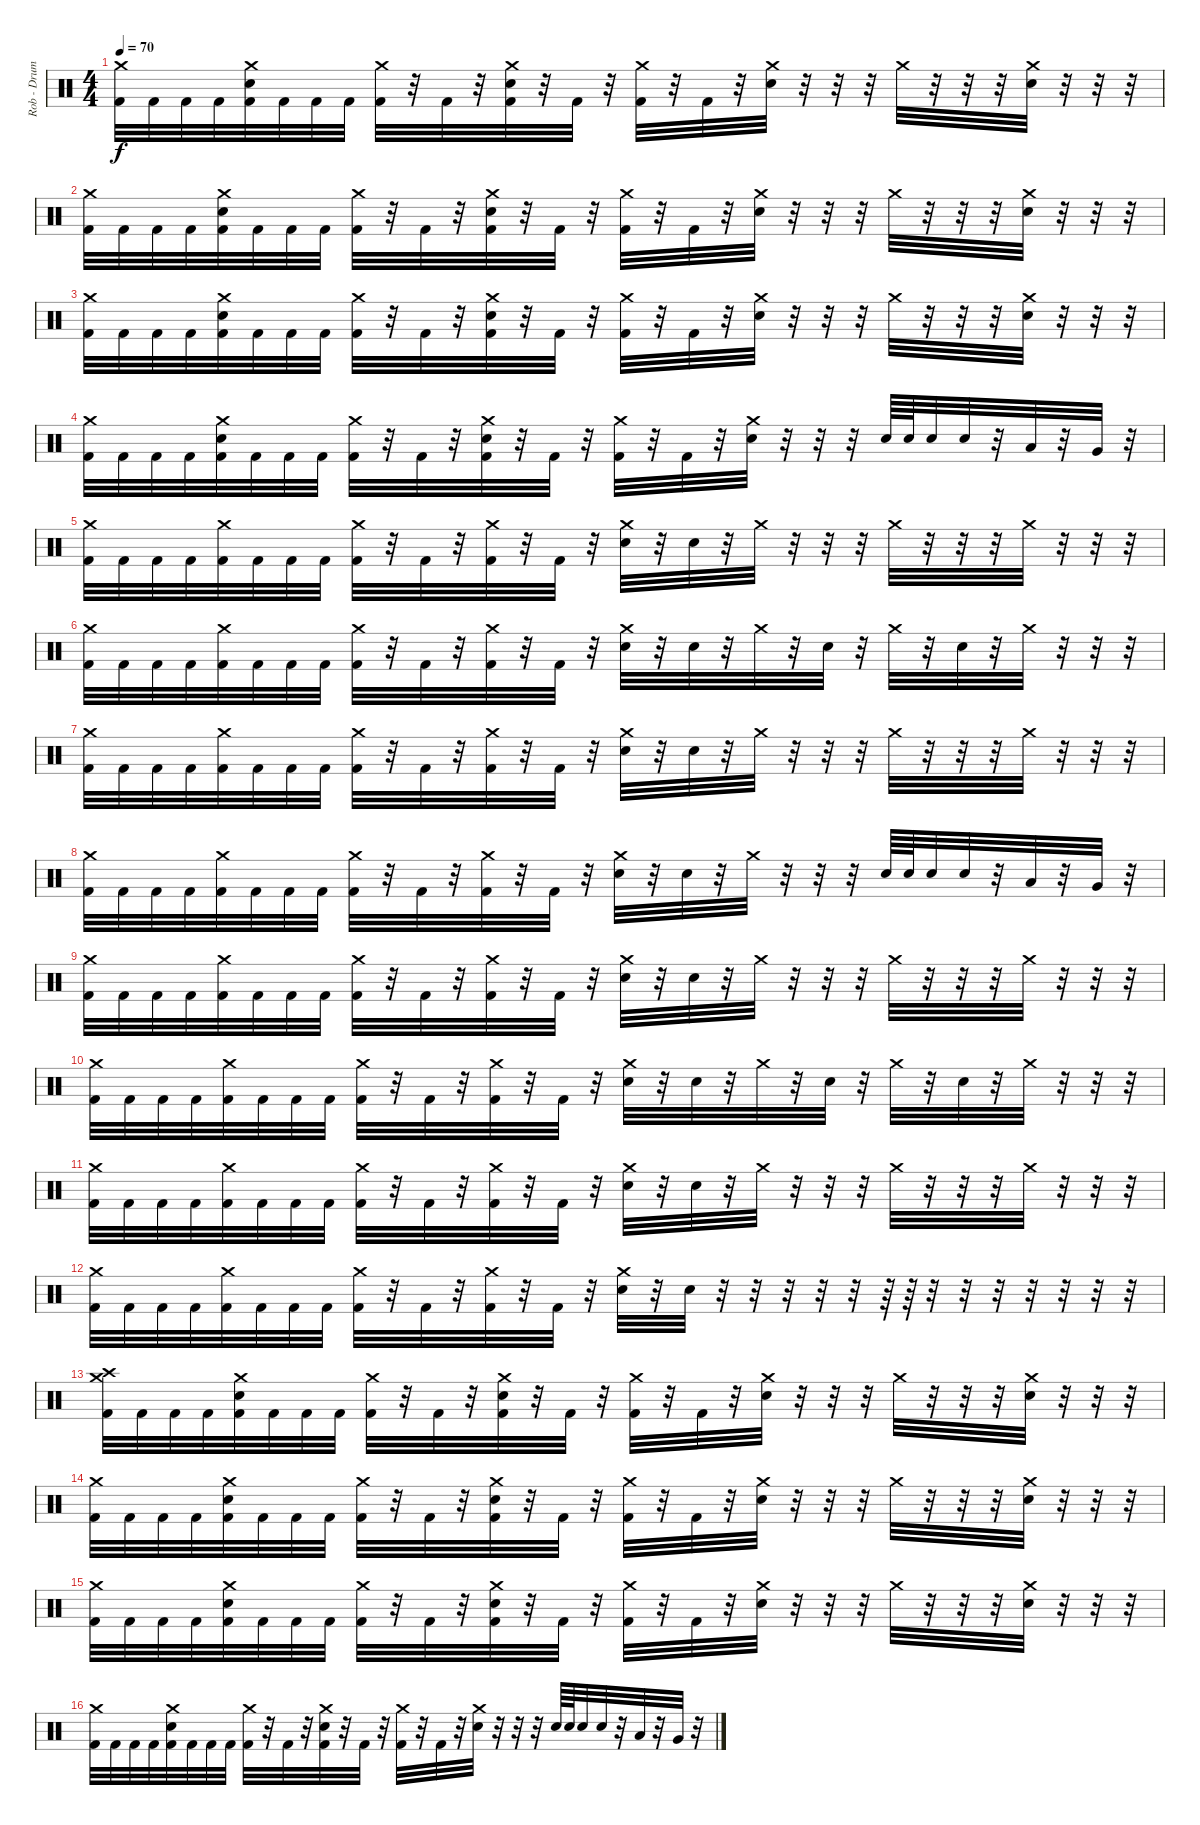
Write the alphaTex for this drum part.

\track ("Rob - Drums" "Rob - Drum") {instrument percussion}
\staff {score}
\articulation defaults
\ts (4 4)
\tempo 70
\clef neutral
\ks c
("Crash medium (hit)" "Kick (hit) 2").32{dy f volume 16} "Kick (hit) 2".32 "Kick (hit) 2".32 "Kick (hit) 2".32 ("Crash medium (hit)" "Electric Snare (hit)" "Kick (hit) 2").32 "Kick (hit) 2".32 "Kick (hit) 2".32 "Kick (hit) 2".32 ("Crash medium (hit)" "Kick (hit) 2").32 r.32 "Kick (hit) 2".32 r.32 ("Crash medium (hit)" "Electric Snare (hit)" "Kick (hit) 2").32 r.32 "Kick (hit) 2".32 r.32 ("Crash medium (hit)" "Kick (hit) 2").32 r.32 "Kick (hit) 2".32 r.32 ("Crash medium (hit)" "Electric Snare (hit)").32 r.32 r.32 r.32 "Crash medium (hit)".32 r.32 r.32 r.32 ("Crash medium (hit)" "Electric Snare (hit)").32 r.32 r.32 r.32 |
("Crash medium (hit)" "Kick (hit) 2").32 "Kick (hit) 2".32 "Kick (hit) 2".32 "Kick (hit) 2".32 ("Crash medium (hit)" "Electric Snare (hit)" "Kick (hit) 2").32 "Kick (hit) 2".32 "Kick (hit) 2".32 "Kick (hit) 2".32 ("Crash medium (hit)" "Kick (hit) 2").32 r.32 "Kick (hit) 2".32 r.32 ("Crash medium (hit)" "Electric Snare (hit)" "Kick (hit) 2").32 r.32 "Kick (hit) 2".32 r.32 ("Crash medium (hit)" "Kick (hit) 2").32 r.32 "Kick (hit) 2".32 r.32 ("Crash medium (hit)" "Electric Snare (hit)").32 r.32 r.32 r.32 "Crash medium (hit)".32 r.32 r.32 r.32 ("Crash medium (hit)" "Electric Snare (hit)").32 r.32 r.32 r.32 |
("Crash medium (hit)" "Kick (hit) 2").32{volume 16} "Kick (hit) 2".32 "Kick (hit) 2".32 "Kick (hit) 2".32 ("Crash medium (hit)" "Electric Snare (hit)" "Kick (hit) 2").32 "Kick (hit) 2".32 "Kick (hit) 2".32 "Kick (hit) 2".32 ("Crash medium (hit)" "Kick (hit) 2").32 r.32 "Kick (hit) 2".32 r.32 ("Crash medium (hit)" "Electric Snare (hit)" "Kick (hit) 2").32 r.32 "Kick (hit) 2".32 r.32 ("Crash medium (hit)" "Kick (hit) 2").32 r.32 "Kick (hit) 2".32 r.32 ("Crash medium (hit)" "Electric Snare (hit)").32 r.32 r.32 r.32 "Crash medium (hit)".32 r.32 r.32 r.32 ("Crash medium (hit)" "Electric Snare (hit)").32 r.32 r.32 r.32 |
("Crash medium (hit)" "Kick (hit) 2").32 "Kick (hit) 2".32 "Kick (hit) 2".32 "Kick (hit) 2".32 ("Crash medium (hit)" "Electric Snare (hit)" "Kick (hit) 2").32 "Kick (hit) 2".32 "Kick (hit) 2".32 "Kick (hit) 2".32 ("Crash medium (hit)" "Kick (hit) 2").32 r.32 "Kick (hit) 2".32 r.32 ("Crash medium (hit)" "Electric Snare (hit)" "Kick (hit) 2").32 r.32 "Kick (hit) 2".32 r.32 ("Crash medium (hit)" "Kick (hit) 2").32 r.32 "Kick (hit) 2".32 r.32 ("Crash medium (hit)" "Electric Snare (hit)").32 r.32 r.32 r.32 "Electric Snare (hit)".64 "Electric Snare (hit)".64 "Electric Snare (hit)".32 "Electric Snare (hit)".32 r.32 "Low Tom (hit)".32 r.32 "Very Low Tom (hit)".32 r.32 |
("Crash medium (hit)" "Kick (hit) 2").32{volume 16} "Kick (hit) 2".32 "Kick (hit) 2".32 "Kick (hit) 2".32 ("Crash medium (hit)" "Kick (hit) 2").32 "Kick (hit) 2".32 "Kick (hit) 2".32 "Kick (hit) 2".32 ("Crash medium (hit)" "Kick (hit) 2").32 r.32 "Kick (hit) 2".32 r.32 ("Crash medium (hit)" "Kick (hit) 2").32 r.32 "Kick (hit) 2".32 r.32 ("Crash medium (hit)" "Electric Snare (hit)").32 r.32 "Electric Snare (hit)".32 r.32 "Crash medium (hit)".32 r.32 r.32 r.32 "Crash medium (hit)".32 r.32 r.32 r.32 "Crash medium (hit)".32 r.32 r.32 r.32 |
("Crash medium (hit)" "Kick (hit) 2").32{volume 16} "Kick (hit) 2".32 "Kick (hit) 2".32 "Kick (hit) 2".32 ("Crash medium (hit)" "Kick (hit) 2").32 "Kick (hit) 2".32 "Kick (hit) 2".32 "Kick (hit) 2".32 ("Crash medium (hit)" "Kick (hit) 2").32 r.32 "Kick (hit) 2".32 r.32 ("Crash medium (hit)" "Kick (hit) 2").32 r.32 "Kick (hit) 2".32 r.32 ("Crash medium (hit)" "Electric Snare (hit)").32 r.32 "Electric Snare (hit)".32 r.32 "Crash medium (hit)".32 r.32 "Electric Snare (hit)".32 r.32 "Crash medium (hit)".32 r.32 "Electric Snare (hit)".32 r.32 "Crash medium (hit)".32 r.32 r.32 r.32 |
("Crash medium (hit)" "Kick (hit) 2").32{volume 16} "Kick (hit) 2".32 "Kick (hit) 2".32 "Kick (hit) 2".32 ("Crash medium (hit)" "Kick (hit) 2").32 "Kick (hit) 2".32 "Kick (hit) 2".32 "Kick (hit) 2".32 ("Crash medium (hit)" "Kick (hit) 2").32 r.32 "Kick (hit) 2".32 r.32 ("Crash medium (hit)" "Kick (hit) 2").32 r.32 "Kick (hit) 2".32 r.32 ("Crash medium (hit)" "Electric Snare (hit)").32 r.32 "Electric Snare (hit)".32 r.32 "Crash medium (hit)".32 r.32 r.32 r.32 "Crash medium (hit)".32 r.32 r.32 r.32 "Crash medium (hit)".32 r.32 r.32 r.32 |
("Crash medium (hit)" "Kick (hit) 2").32 "Kick (hit) 2".32 "Kick (hit) 2".32 "Kick (hit) 2".32 ("Crash medium (hit)" "Kick (hit) 2").32 "Kick (hit) 2".32 "Kick (hit) 2".32 "Kick (hit) 2".32 ("Crash medium (hit)" "Kick (hit) 2").32 r.32 "Kick (hit) 2".32 r.32 ("Crash medium (hit)" "Kick (hit) 2").32 r.32 "Kick (hit) 2".32 r.32 ("Crash medium (hit)" "Electric Snare (hit)").32 r.32 "Electric Snare (hit)".32 r.32 "Crash medium (hit)".32 r.32 r.32 r.32 "Electric Snare (hit)".64 "Electric Snare (hit)".64 "Electric Snare (hit)".32 "Electric Snare (hit)".32 r.32 "Low Tom (hit)".32 r.32 "Very Low Tom (hit)".32 r.32 |
("Crash medium (hit)" "Kick (hit) 2").32 "Kick (hit) 2".32 "Kick (hit) 2".32 "Kick (hit) 2".32 ("Crash medium (hit)" "Kick (hit) 2").32 "Kick (hit) 2".32 "Kick (hit) 2".32 "Kick (hit) 2".32 ("Crash medium (hit)" "Kick (hit) 2").32 r.32 "Kick (hit) 2".32 r.32 ("Crash medium (hit)" "Kick (hit) 2").32 r.32 "Kick (hit) 2".32 r.32 ("Crash medium (hit)" "Electric Snare (hit)").32 r.32 "Electric Snare (hit)".32 r.32 "Crash medium (hit)".32 r.32 r.32 r.32 "Crash medium (hit)".32 r.32 r.32 r.32 "Crash medium (hit)".32 r.32 r.32 r.32 |
("Crash medium (hit)" "Kick (hit) 2").32{volume 16} "Kick (hit) 2".32 "Kick (hit) 2".32 "Kick (hit) 2".32 ("Crash medium (hit)" "Kick (hit) 2").32 "Kick (hit) 2".32 "Kick (hit) 2".32 "Kick (hit) 2".32 ("Crash medium (hit)" "Kick (hit) 2").32 r.32 "Kick (hit) 2".32 r.32 ("Crash medium (hit)" "Kick (hit) 2").32 r.32 "Kick (hit) 2".32 r.32 ("Crash medium (hit)" "Electric Snare (hit)").32 r.32 "Electric Snare (hit)".32 r.32 "Crash medium (hit)".32 r.32 "Electric Snare (hit)".32 r.32 "Crash medium (hit)".32 r.32 "Electric Snare (hit)".32 r.32 "Crash medium (hit)".32 r.32 r.32 r.32 |
("Crash medium (hit)" "Kick (hit) 2").32{volume 16} "Kick (hit) 2".32 "Kick (hit) 2".32 "Kick (hit) 2".32 ("Crash medium (hit)" "Kick (hit) 2").32 "Kick (hit) 2".32 "Kick (hit) 2".32 "Kick (hit) 2".32 ("Crash medium (hit)" "Kick (hit) 2").32 r.32 "Kick (hit) 2".32 r.32 ("Crash medium (hit)" "Kick (hit) 2").32 r.32 "Kick (hit) 2".32 r.32 ("Crash medium (hit)" "Electric Snare (hit)").32 r.32 "Electric Snare (hit)".32 r.32 "Crash medium (hit)".32 r.32 r.32 r.32 "Crash medium (hit)".32 r.32 r.32 r.32 "Crash medium (hit)".32 r.32 r.32 r.32 |
("Crash medium (hit)" "Kick (hit) 2").32 "Kick (hit) 2".32 "Kick (hit) 2".32 "Kick (hit) 2".32 ("Crash medium (hit)" "Kick (hit) 2").32 "Kick (hit) 2".32 "Kick (hit) 2".32 "Kick (hit) 2".32 ("Crash medium (hit)" "Kick (hit) 2").32 r.32 "Kick (hit) 2".32 r.32 ("Crash medium (hit)" "Kick (hit) 2").32 r.32 "Kick (hit) 2".32 r.32 ("Crash medium (hit)" "Electric Snare (hit)").32 r.32 "Electric Snare (hit)".32 r.32 r.32 r.32 r.32 r.32 r.64 r.64 r.32 r.32 r.32 r.32 r.32 r.32 r.32 |
("Crash medium (hit)" "Crash high (hit)" "Kick (hit) 2").32{volume 16} "Kick (hit) 2".32 "Kick (hit) 2".32 "Kick (hit) 2".32 ("Crash medium (hit)" "Electric Snare (hit)" "Kick (hit) 2").32 "Kick (hit) 2".32 "Kick (hit) 2".32 "Kick (hit) 2".32 ("Crash medium (hit)" "Kick (hit) 2").32 r.32 "Kick (hit) 2".32 r.32 ("Crash medium (hit)" "Electric Snare (hit)" "Kick (hit) 2").32 r.32 "Kick (hit) 2".32 r.32 ("Crash medium (hit)" "Kick (hit) 2").32 r.32 "Kick (hit) 2".32 r.32 ("Crash medium (hit)" "Electric Snare (hit)").32 r.32 r.32 r.32 "Crash medium (hit)".32 r.32 r.32 r.32 ("Crash medium (hit)" "Electric Snare (hit)").32 r.32 r.32 r.32 |
("Crash medium (hit)" "Kick (hit) 2").32 "Kick (hit) 2".32 "Kick (hit) 2".32 "Kick (hit) 2".32 ("Crash medium (hit)" "Electric Snare (hit)" "Kick (hit) 2").32 "Kick (hit) 2".32 "Kick (hit) 2".32 "Kick (hit) 2".32 ("Crash medium (hit)" "Kick (hit) 2").32 r.32 "Kick (hit) 2".32 r.32 ("Crash medium (hit)" "Electric Snare (hit)" "Kick (hit) 2").32 r.32 "Kick (hit) 2".32 r.32 ("Crash medium (hit)" "Kick (hit) 2").32 r.32 "Kick (hit) 2".32 r.32 ("Crash medium (hit)" "Electric Snare (hit)").32 r.32 r.32 r.32 "Crash medium (hit)".32 r.32 r.32 r.32 ("Crash medium (hit)" "Electric Snare (hit)").32 r.32 r.32 r.32 |
("Crash medium (hit)" "Kick (hit) 2").32{volume 16} "Kick (hit) 2".32 "Kick (hit) 2".32 "Kick (hit) 2".32 ("Crash medium (hit)" "Electric Snare (hit)" "Kick (hit) 2").32 "Kick (hit) 2".32 "Kick (hit) 2".32 "Kick (hit) 2".32 ("Crash medium (hit)" "Kick (hit) 2").32 r.32 "Kick (hit) 2".32 r.32 ("Crash medium (hit)" "Electric Snare (hit)" "Kick (hit) 2").32 r.32 "Kick (hit) 2".32 r.32 ("Crash medium (hit)" "Kick (hit) 2").32 r.32 "Kick (hit) 2".32 r.32 ("Crash medium (hit)" "Electric Snare (hit)").32 r.32 r.32 r.32 "Crash medium (hit)".32 r.32 r.32 r.32 ("Crash medium (hit)" "Electric Snare (hit)").32 r.32 r.32 r.32 |
("Crash medium (hit)" "Kick (hit) 2").32 "Kick (hit) 2".32 "Kick (hit) 2".32 "Kick (hit) 2".32 ("Crash medium (hit)" "Electric Snare (hit)" "Kick (hit) 2").32 "Kick (hit) 2".32 "Kick (hit) 2".32 "Kick (hit) 2".32 ("Crash medium (hit)" "Kick (hit) 2").32 r.32 "Kick (hit) 2".32 r.32 ("Crash medium (hit)" "Electric Snare (hit)" "Kick (hit) 2").32 r.32 "Kick (hit) 2".32 r.32 ("Crash medium (hit)" "Kick (hit) 2").32 r.32 "Kick (hit) 2".32 r.32 ("Crash medium (hit)" "Electric Snare (hit)").32 r.32 r.32 r.32 "Electric Snare (hit)".64 "Electric Snare (hit)".64 "Electric Snare (hit)".32 "Electric Snare (hit)".32 r.32 "Low Tom (hit)".32 r.32 "Very Low Tom (hit)".32 r.32
